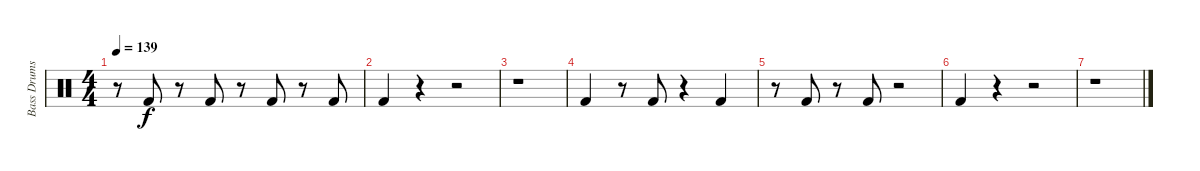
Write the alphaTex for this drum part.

\track ("Bass Drums" "Bass Drums") {instrument percussion}
\staff {score}
\articulation defaults
\ts (4 4)
\tempo 139
\clef neutral
\ks c
r.8{dy f} "Kick (hit) 2".8 r.8 "Kick (hit) 2".8 r.8 "Kick (hit) 2".8 r.8 "Kick (hit) 2".8 |
"Kick (hit) 2".4 r.4 r.2 |
r.1 |
"Kick (hit) 2".4 r.8 "Kick (hit) 2".8 r.4 "Kick (hit) 2".4 |
r.8 "Kick (hit) 2".8 r.8 "Kick (hit) 2".8 r.2 |
"Kick (hit) 2".4 r.4 r.2 |
r.1
